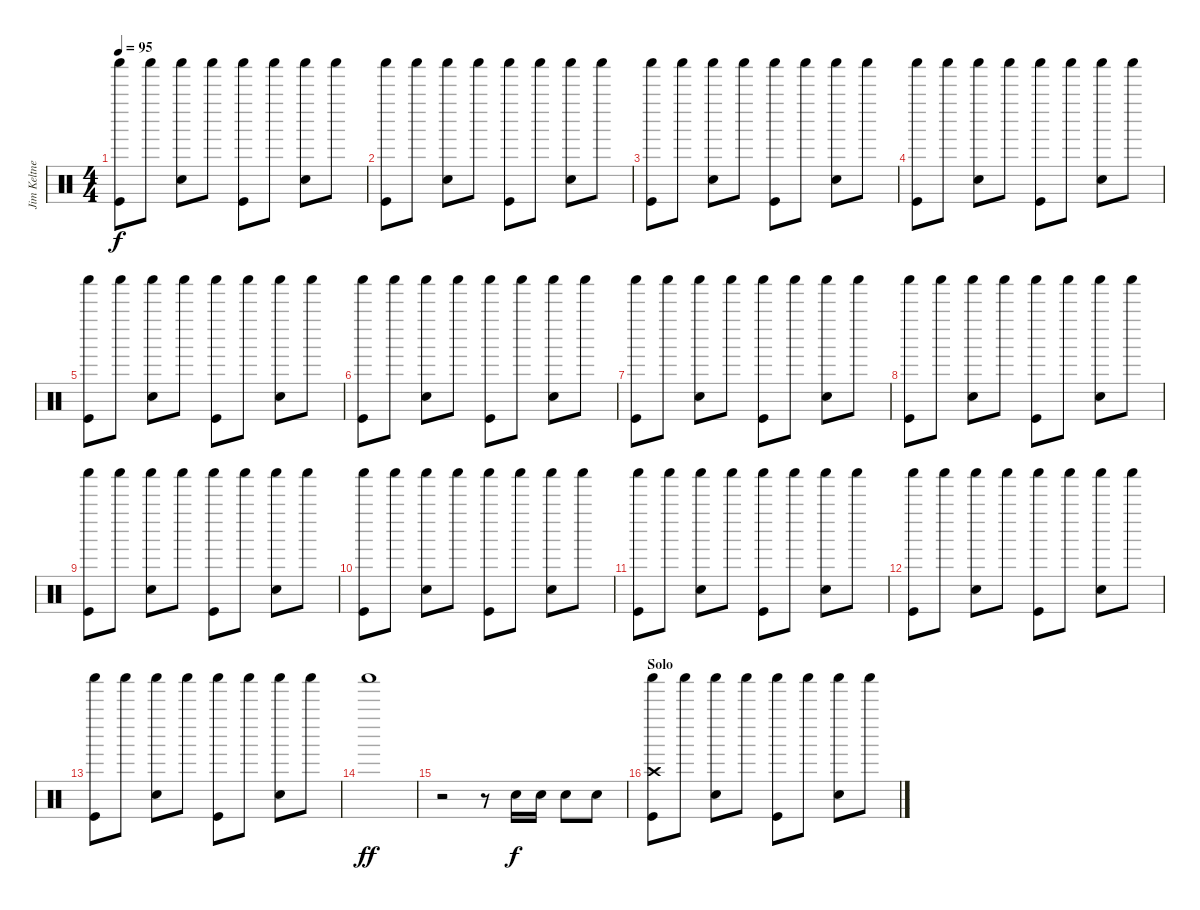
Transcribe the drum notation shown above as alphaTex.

\track ("Jim Keltner" "Jim Keltne") {instrument percussion}
\staff {score}
\articulation defaults
\ts (4 4)
\tempo 95
\clef neutral
\ks c
("Shaker (hit)" "Kick (hit)").8{dy f} "Shaker (hit)".8 ("Shaker (hit)" "Snare (hit) 2").8 "Shaker (hit)".8 ("Shaker (hit)" "Kick (hit)").8 "Shaker (hit)".8 ("Shaker (hit)" "Snare (hit) 2").8 "Shaker (hit)".8 |
("Shaker (hit)" "Kick (hit)").8 "Shaker (hit)".8 ("Shaker (hit)" "Snare (hit) 2").8 "Shaker (hit)".8 ("Shaker (hit)" "Kick (hit)").8 "Shaker (hit)".8 ("Shaker (hit)" "Snare (hit) 2").8 "Shaker (hit)".8 |
("Shaker (hit)" "Kick (hit)").8 "Shaker (hit)".8 ("Shaker (hit)" "Snare (hit) 2").8 "Shaker (hit)".8 ("Shaker (hit)" "Kick (hit)").8 "Shaker (hit)".8 ("Shaker (hit)" "Snare (hit) 2").8 "Shaker (hit)".8 |
("Shaker (hit)" "Kick (hit)").8 "Shaker (hit)".8 ("Shaker (hit)" "Snare (hit) 2").8 "Shaker (hit)".8 ("Shaker (hit)" "Kick (hit)").8 "Shaker (hit)".8 ("Shaker (hit)" "Snare (hit) 2").8 "Shaker (hit)".8 |
("Shaker (hit)" "Kick (hit)").8 "Shaker (hit)".8 ("Shaker (hit)" "Snare (hit) 2").8 "Shaker (hit)".8 ("Shaker (hit)" "Kick (hit)").8 "Shaker (hit)".8 ("Shaker (hit)" "Snare (hit) 2").8 "Shaker (hit)".8 |
("Shaker (hit)" "Kick (hit)").8 "Shaker (hit)".8 ("Shaker (hit)" "Snare (hit) 2").8 "Shaker (hit)".8 ("Shaker (hit)" "Kick (hit)").8 "Shaker (hit)".8 ("Shaker (hit)" "Snare (hit) 2").8 "Shaker (hit)".8 |
("Shaker (hit)" "Kick (hit)").8 "Shaker (hit)".8 ("Shaker (hit)" "Snare (hit) 2").8 "Shaker (hit)".8 ("Shaker (hit)" "Kick (hit)").8 "Shaker (hit)".8 ("Shaker (hit)" "Snare (hit) 2").8 "Shaker (hit)".8 |
("Shaker (hit)" "Kick (hit)").8 "Shaker (hit)".8 ("Shaker (hit)" "Snare (hit) 2").8 "Shaker (hit)".8 ("Shaker (hit)" "Kick (hit)").8 "Shaker (hit)".8 ("Shaker (hit)" "Snare (hit) 2").8 "Shaker (hit)".8 |
("Shaker (hit)" "Kick (hit)").8 "Shaker (hit)".8 ("Shaker (hit)" "Snare (hit) 2").8 "Shaker (hit)".8 ("Shaker (hit)" "Kick (hit)").8 "Shaker (hit)".8 ("Shaker (hit)" "Snare (hit) 2").8 "Shaker (hit)".8 |
("Shaker (hit)" "Kick (hit)").8 "Shaker (hit)".8 ("Shaker (hit)" "Snare (hit) 2").8 "Shaker (hit)".8 ("Shaker (hit)" "Kick (hit)").8 "Shaker (hit)".8 ("Shaker (hit)" "Snare (hit) 2").8 "Shaker (hit)".8 |
("Shaker (hit)" "Kick (hit)").8 "Shaker (hit)".8 ("Shaker (hit)" "Snare (hit) 2").8 "Shaker (hit)".8 ("Shaker (hit)" "Kick (hit)").8 "Shaker (hit)".8 ("Shaker (hit)" "Snare (hit) 2").8 "Shaker (hit)".8 |
("Shaker (hit)" "Kick (hit)").8 "Shaker (hit)".8 ("Shaker (hit)" "Snare (hit) 2").8 "Shaker (hit)".8 ("Shaker (hit)" "Kick (hit)").8 "Shaker (hit)".8 ("Shaker (hit)" "Snare (hit) 2").8 "Shaker (hit)".8 |
("Shaker (hit)" "Kick (hit)").8 "Shaker (hit)".8 ("Shaker (hit)" "Snare (hit) 2").8 "Shaker (hit)".8 ("Shaker (hit)" "Kick (hit)").8 "Shaker (hit)".8 ("Shaker (hit)" "Snare (hit) 2").8 "Shaker (hit)".8 |
"Shaker (hit)".1{dy ff} |
r.2 r.8 "Snare (hit) 2".16{dy f} "Snare (hit) 2".16 "Snare (hit) 2".8 "Snare (hit) 2".8 |
\section ("" "Solo")
("Shaker (hit)" "Crash high (hit)" "Kick (hit)").8 "Shaker (hit)".8 ("Shaker (hit)" "Snare (hit) 2").8 "Shaker (hit)".8 ("Shaker (hit)" "Kick (hit)").8 "Shaker (hit)".8 ("Shaker (hit)" "Snare (hit) 2").8 "Shaker (hit)".8
